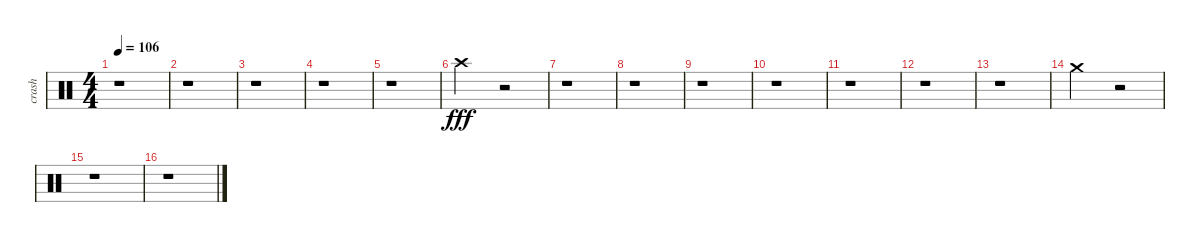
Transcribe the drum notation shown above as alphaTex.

\track ("crash" "crash") {instrument percussion}
\staff {score}
\articulation defaults
\ts (4 4)
\tempo 106
\clef neutral
\ks c
r.1{dy fff} |
r.1 |
r.1 |
r.1 |
r.1 |
"Crash high (hit)".2 r.2 |
r.1 |
r.1 |
r.1 |
r.1 |
r.1 |
r.1 |
r.1 |
"Crash medium (hit)".2 r.2 |
r.1 |
r.1
